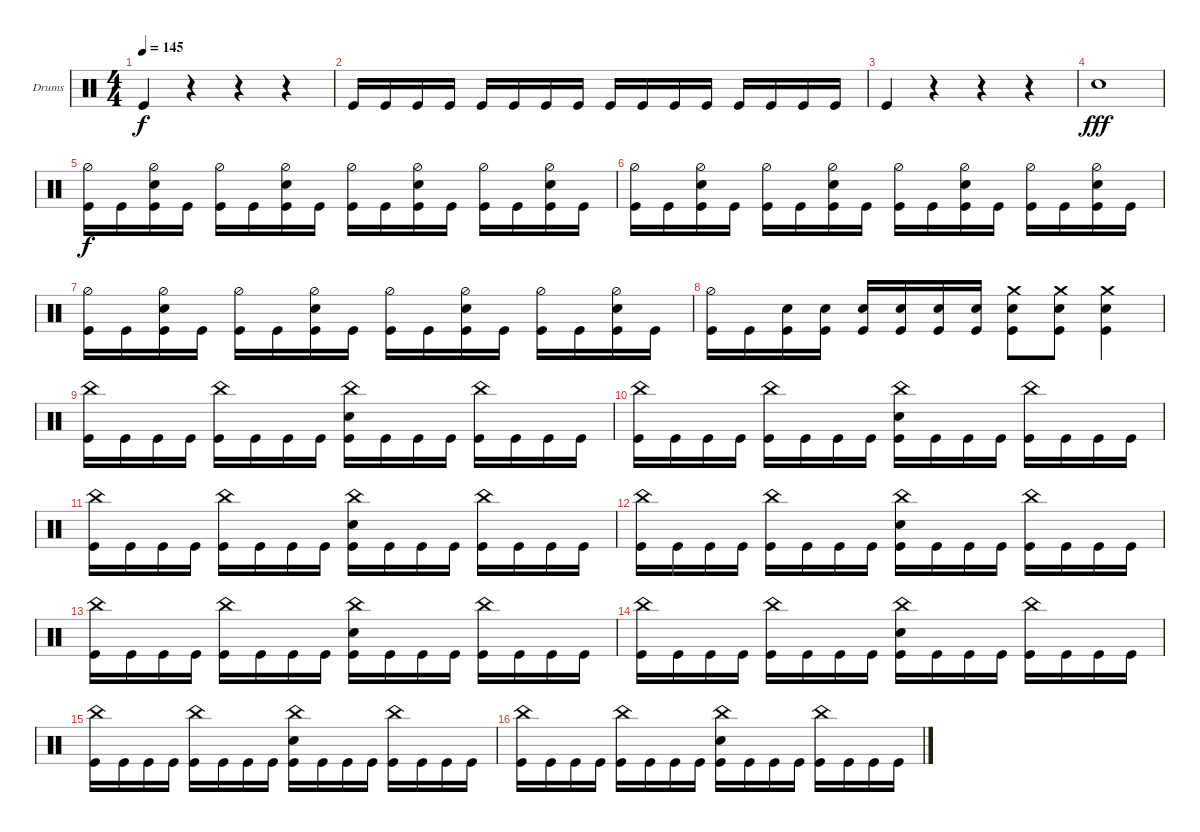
\bracketExtendMode groupsimilarinstruments
\firstSystemTrackNameOrientation horizontal
\otherSystemsTrackNameOrientation horizontal
\track ("Drumkit" "Drums") {instrument percussion}
\staff {score}
\articulation defaults
\ts (4 4)
\tempo 145
\clef neutral
\ks c "Kick (hit)".4{dy f}
r.4 r.4 r.4 |
"Kick (hit)".16 "Kick (hit)".16 "Kick (hit)".16 "Kick (hit)".16 "Kick (hit)".16 "Kick (hit)".16 "Kick (hit)".16 "Kick (hit)".16 "Kick (hit)".16 "Kick (hit)".16 "Kick (hit)".16 "Kick (hit)".16 "Kick (hit)".16 "Kick (hit)".16 "Kick (hit)".16 "Kick (hit)".16 |
"Kick (hit)".4 r.4 r.4 r.4 |
"Snare (hit) 2".1{dy fff} |
("Kick (hit)" "Hi-Hat (half)").16{dy f} "Kick (hit)".16 ("Snare (hit) 2" "Kick (hit)" "Hi-Hat (half)").16 "Kick (hit)".16 ("Kick (hit)" "Hi-Hat (half)").16 "Kick (hit)".16 ("Snare (hit) 2" "Kick (hit)" "Hi-Hat (half)").16 "Kick (hit)".16 ("Kick (hit)" "Hi-Hat (half)").16 "Kick (hit)".16 ("Snare (hit) 2" "Kick (hit)" "Hi-Hat (half)").16 "Kick (hit)".16 ("Kick (hit)" "Hi-Hat (half)").16 "Kick (hit)".16 ("Snare (hit) 2" "Kick (hit)" "Hi-Hat (half)").16 "Kick (hit)".16 |
("Kick (hit)" "Hi-Hat (half)").16 "Kick (hit)".16 ("Snare (hit) 2" "Kick (hit)" "Hi-Hat (half)").16 "Kick (hit)".16 ("Kick (hit)" "Hi-Hat (half)").16 "Kick (hit)".16 ("Snare (hit) 2" "Kick (hit)" "Hi-Hat (half)").16 "Kick (hit)".16 ("Kick (hit)" "Hi-Hat (half)").16 "Kick (hit)".16 ("Snare (hit) 2" "Kick (hit)" "Hi-Hat (half)").16 "Kick (hit)".16 ("Kick (hit)" "Hi-Hat (half)").16 "Kick (hit)".16 ("Snare (hit) 2" "Kick (hit)" "Hi-Hat (half)").16 "Kick (hit)".16 |
("Kick (hit)" "Hi-Hat (half)").16 "Kick (hit)".16 ("Snare (hit) 2" "Kick (hit)" "Hi-Hat (half)").16 "Kick (hit)".16 ("Kick (hit)" "Hi-Hat (half)").16 "Kick (hit)".16 ("Snare (hit) 2" "Kick (hit)" "Hi-Hat (half)").16 "Kick (hit)".16 ("Kick (hit)" "Hi-Hat (half)").16 "Kick (hit)".16 ("Snare (hit) 2" "Kick (hit)" "Hi-Hat (half)").16 "Kick (hit)".16 ("Kick (hit)" "Hi-Hat (half)").16 "Kick (hit)".16 ("Snare (hit) 2" "Kick (hit)" "Hi-Hat (half)").16 "Kick (hit)".16 |
("Kick (hit)" "Hi-Hat (half)").16 "Kick (hit)".16 ("Snare (hit) 2" "Kick (hit)").16 ("Snare (hit) 2" "Kick (hit)").16 ("Snare (hit) 2" "Kick (hit)").16 ("Snare (hit) 2" "Kick (hit)").16 ("Snare (hit) 2" "Kick (hit)").16 ("Snare (hit) 2" "Kick (hit)").16 ("Crash medium (hit)" "Snare (hit) 2" "Kick (hit)").8 ("Crash medium (hit)" "Snare (hit) 2" "Kick (hit)").8 ("Crash medium (hit)" "Snare (hit) 2" "Kick (hit)").4 |
("Kick (hit)" "China (hit)").16 "Kick (hit)".16 "Kick (hit)".16 "Kick (hit)".16 ("Kick (hit)" "China (hit)").16 "Kick (hit)".16 "Kick (hit)".16 "Kick (hit)".16 ("Snare (hit) 2" "Kick (hit)" "China (hit)").16 "Kick (hit)".16 "Kick (hit)".16 "Kick (hit)".16 ("Kick (hit)" "China (hit)").16 "Kick (hit)".16 "Kick (hit)".16 "Kick (hit)".16 |
("Kick (hit)" "China (hit)").16 "Kick (hit)".16 "Kick (hit)".16 "Kick (hit)".16 ("Kick (hit)" "China (hit)").16 "Kick (hit)".16 "Kick (hit)".16 "Kick (hit)".16 ("Snare (hit) 2" "Kick (hit)" "China (hit)").16 "Kick (hit)".16 "Kick (hit)".16 "Kick (hit)".16 ("Kick (hit)" "China (hit)").16 "Kick (hit)".16 "Kick (hit)".16 "Kick (hit)".16 |
("Kick (hit)" "China (hit)").16 "Kick (hit)".16 "Kick (hit)".16 "Kick (hit)".16 ("Kick (hit)" "China (hit)").16 "Kick (hit)".16 "Kick (hit)".16 "Kick (hit)".16 ("Snare (hit) 2" "Kick (hit)" "China (hit)").16 "Kick (hit)".16 "Kick (hit)".16 "Kick (hit)".16 ("Kick (hit)" "China (hit)").16 "Kick (hit)".16 "Kick (hit)".16 "Kick (hit)".16 |
("Kick (hit)" "China (hit)").16 "Kick (hit)".16 "Kick (hit)".16 "Kick (hit)".16 ("Kick (hit)" "China (hit)").16 "Kick (hit)".16 "Kick (hit)".16 "Kick (hit)".16 ("Snare (hit) 2" "Kick (hit)" "China (hit)").16 "Kick (hit)".16 "Kick (hit)".16 "Kick (hit)".16 ("Kick (hit)" "China (hit)").16 "Kick (hit)".16 "Kick (hit)".16 "Kick (hit)".16 |
("Kick (hit)" "China (hit)").16 "Kick (hit)".16 "Kick (hit)".16 "Kick (hit)".16 ("Kick (hit)" "China (hit)").16 "Kick (hit)".16 "Kick (hit)".16 "Kick (hit)".16 ("Snare (hit) 2" "Kick (hit)" "China (hit)").16 "Kick (hit)".16 "Kick (hit)".16 "Kick (hit)".16 ("Kick (hit)" "China (hit)").16 "Kick (hit)".16 "Kick (hit)".16 "Kick (hit)".16 |
("Kick (hit)" "China (hit)").16 "Kick (hit)".16 "Kick (hit)".16 "Kick (hit)".16 ("Kick (hit)" "China (hit)").16 "Kick (hit)".16 "Kick (hit)".16 "Kick (hit)".16 ("Snare (hit) 2" "Kick (hit)" "China (hit)").16 "Kick (hit)".16 "Kick (hit)".16 "Kick (hit)".16 ("Kick (hit)" "China (hit)").16 "Kick (hit)".16 "Kick (hit)".16 "Kick (hit)".16 |
("Kick (hit)" "China (hit)").16 "Kick (hit)".16 "Kick (hit)".16 "Kick (hit)".16 ("Kick (hit)" "China (hit)").16 "Kick (hit)".16 "Kick (hit)".16 "Kick (hit)".16 ("Snare (hit) 2" "Kick (hit)" "China (hit)").16 "Kick (hit)".16 "Kick (hit)".16 "Kick (hit)".16 ("Kick (hit)" "China (hit)").16 "Kick (hit)".16 "Kick (hit)".16 "Kick (hit)".16 |
("Kick (hit)" "China (hit)").16 "Kick (hit)".16 "Kick (hit)".16 "Kick (hit)".16 ("Kick (hit)" "China (hit)").16 "Kick (hit)".16 "Kick (hit)".16 "Kick (hit)".16 ("Snare (hit) 2" "Kick (hit)" "China (hit)").16 "Kick (hit)".16 "Kick (hit)".16 "Kick (hit)".16 ("Kick (hit)" "China (hit)").16 "Kick (hit)".16 "Kick (hit)".16 "Kick (hit)".16
